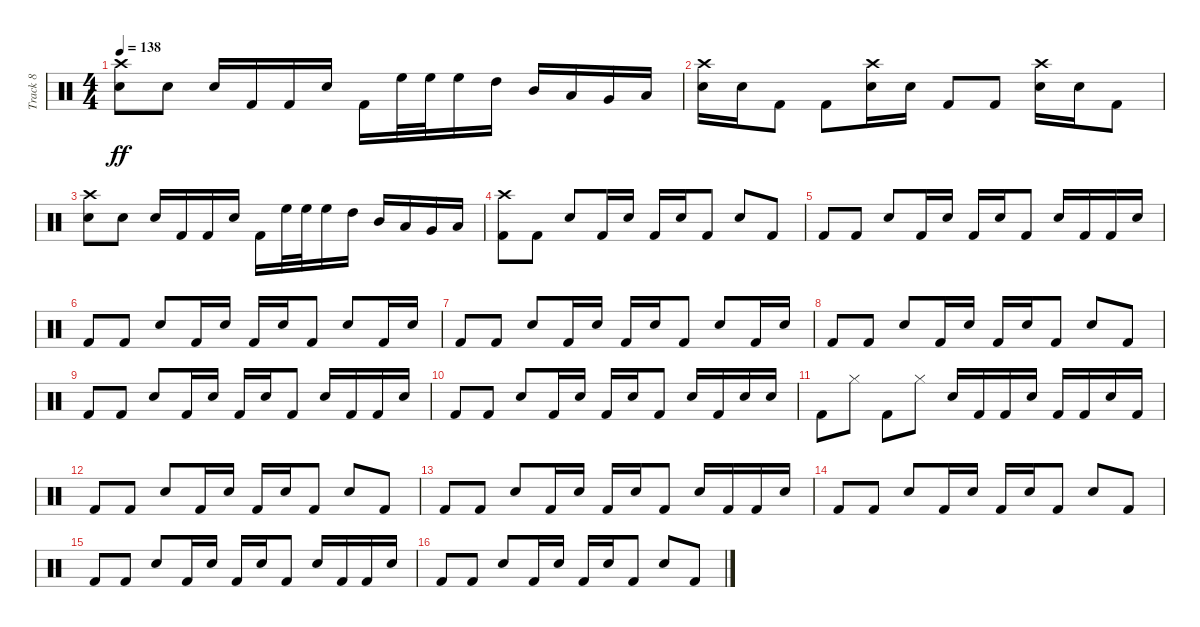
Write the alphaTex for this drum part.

\track ("Track 8" "Track 8") {instrument percussion}
\staff {score}
\articulation defaults
\ts (4 4)
\tempo 138
\clef neutral
\ks c
("Snare (hit) 2" "Crash high (hit)").8{dy ff} "Snare (hit) 2".8 "Snare (hit) 2".16 "Kick (hit) 2".16 "Kick (hit) 2".16 "Snare (hit) 2".16 "Kick (hit) 2".16 "High Floor Tom (hit)".32 "High Floor Tom (hit)".32 "High Floor Tom (hit)".16 "High Tom (hit)".16 "Mid Tom (hit)".16 "Low Tom (hit)".16 "Very Low Tom (hit)".16 "Low Floor Tom (hit)".16 |
("Snare (hit) 2" "Crash high (hit)").16 "Snare (hit) 2".16 "Kick (hit) 2".8 "Kick (hit) 2".8 ("Snare (hit) 2" "Crash high (hit)").16 "Snare (hit) 2".16 "Kick (hit) 2".8 "Kick (hit) 2".8 ("Snare (hit) 2" "Crash high (hit)").16 "Snare (hit) 2".16 "Kick (hit) 2".8 |
("Snare (hit) 2" "Crash high (hit)").8 "Snare (hit) 2".8 "Snare (hit) 2".16 "Kick (hit) 2".16 "Kick (hit) 2".16 "Snare (hit) 2".16 "Kick (hit) 2".16 "High Floor Tom (hit)".32 "High Floor Tom (hit)".32 "High Floor Tom (hit)".16 "High Tom (hit)".16 "Mid Tom (hit)".16 "Low Tom (hit)".16 "Very Low Tom (hit)".16 "Low Floor Tom (hit)".16 |
("Kick (hit) 2" "Crash high (hit)").8 "Kick (hit) 2".8 "Snare (hit) 2".8 "Kick (hit) 2".16 "Snare (hit) 2".16 "Kick (hit) 2".16 "Snare (hit) 2".16 "Kick (hit) 2".8 "Snare (hit) 2".8 "Kick (hit) 2".8 |
"Kick (hit) 2".8 "Kick (hit) 2".8 "Snare (hit) 2".8 "Kick (hit) 2".16 "Snare (hit) 2".16 "Kick (hit) 2".16 "Snare (hit) 2".16 "Kick (hit) 2".8 "Snare (hit) 2".16 "Kick (hit) 2".16 "Kick (hit) 2".16 "Snare (hit) 2".16 |
"Kick (hit) 2".8 "Kick (hit) 2".8 "Snare (hit) 2".8 "Kick (hit) 2".16 "Snare (hit) 2".16 "Kick (hit) 2".16 "Snare (hit) 2".16 "Kick (hit) 2".8 "Snare (hit) 2".8 "Kick (hit) 2".16 "Snare (hit) 2".16 |
"Kick (hit) 2".8 "Kick (hit) 2".8 "Snare (hit) 2".8 "Kick (hit) 2".16 "Snare (hit) 2".16 "Kick (hit) 2".16 "Snare (hit) 2".16 "Kick (hit) 2".8 "Snare (hit) 2".8 "Kick (hit) 2".16 "Snare (hit) 2".16 |
"Kick (hit) 2".8 "Kick (hit) 2".8 "Snare (hit) 2".8 "Kick (hit) 2".16 "Snare (hit) 2".16 "Kick (hit) 2".16 "Snare (hit) 2".16 "Kick (hit) 2".8 "Snare (hit) 2".8 "Kick (hit) 2".8 |
"Kick (hit) 2".8 "Kick (hit) 2".8 "Snare (hit) 2".8 "Kick (hit) 2".16 "Snare (hit) 2".16 "Kick (hit) 2".16 "Snare (hit) 2".16 "Kick (hit) 2".8 "Snare (hit) 2".16 "Kick (hit) 2".16 "Kick (hit) 2".16 "Snare (hit) 2".16 |
"Kick (hit) 2".8 "Kick (hit) 2".8 "Snare (hit) 2".8 "Kick (hit) 2".16 "Snare (hit) 2".16 "Kick (hit) 2".16 "Snare (hit) 2".16 "Kick (hit) 2".8 "Snare (hit) 2".16 "Kick (hit) 2".16 "Snare (hit) 2".16 "Snare (hit) 2".16 |
"Kick (hit) 2".8 "Hi-Hat (closed)".8 "Kick (hit) 2".8 "Hi-Hat (closed)".8 "Snare (hit) 2".16 "Kick (hit) 2".16 "Kick (hit) 2".16 "Snare (hit) 2".16 "Kick (hit) 2".16 "Kick (hit) 2".16 "Snare (hit) 2".16 "Kick (hit) 2".16 |
"Kick (hit) 2".8 "Kick (hit) 2".8 "Snare (hit) 2".8 "Kick (hit) 2".16 "Snare (hit) 2".16 "Kick (hit) 2".16 "Snare (hit) 2".16 "Kick (hit) 2".8 "Snare (hit) 2".8 "Kick (hit) 2".8 |
"Kick (hit) 2".8 "Kick (hit) 2".8 "Snare (hit) 2".8 "Kick (hit) 2".16 "Snare (hit) 2".16 "Kick (hit) 2".16 "Snare (hit) 2".16 "Kick (hit) 2".8 "Snare (hit) 2".16 "Kick (hit) 2".16 "Kick (hit) 2".16 "Snare (hit) 2".16 |
"Kick (hit) 2".8 "Kick (hit) 2".8 "Snare (hit) 2".8 "Kick (hit) 2".16 "Snare (hit) 2".16 "Kick (hit) 2".16 "Snare (hit) 2".16 "Kick (hit) 2".8 "Snare (hit) 2".8 "Kick (hit) 2".8 |
"Kick (hit) 2".8 "Kick (hit) 2".8 "Snare (hit) 2".8 "Kick (hit) 2".16 "Snare (hit) 2".16 "Kick (hit) 2".16 "Snare (hit) 2".16 "Kick (hit) 2".8 "Snare (hit) 2".16 "Kick (hit) 2".16 "Kick (hit) 2".16 "Snare (hit) 2".16 |
"Kick (hit) 2".8 "Kick (hit) 2".8 "Snare (hit) 2".8 "Kick (hit) 2".16 "Snare (hit) 2".16 "Kick (hit) 2".16 "Snare (hit) 2".16 "Kick (hit) 2".8 "Snare (hit) 2".8 "Kick (hit) 2".8
